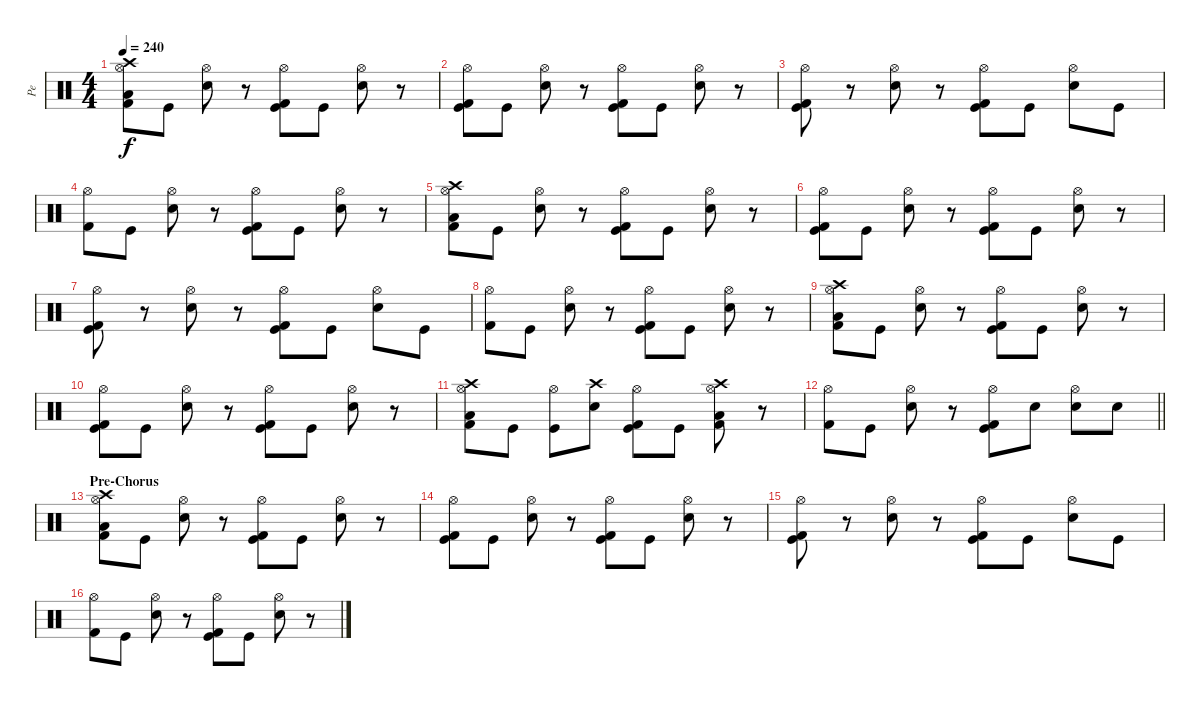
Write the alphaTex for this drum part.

\track ("Pe" "Pe") {instrument percussion}
\staff {score}
\articulation defaults
\ts (4 4)
\tempo 240
\clef neutral
\ks c
("Low Tom (hit)" "Hi-Hat (open)" "Kick (hit) 2" "Crash high (hit)").8{dy f} "Kick (hit)".8 ("Electric Snare (hit)" "Hi-Hat (open)").8 r.8 ("Kick (hit)" "Hi-Hat (open)" "Kick (hit) 2").8 "Kick (hit)".8 ("Electric Snare (hit)" "Hi-Hat (open)").8 r.8 |
("Kick (hit)" "Hi-Hat (open)" "Kick (hit) 2").8 "Kick (hit)".8 ("Electric Snare (hit)" "Hi-Hat (open)").8 r.8 ("Kick (hit)" "Hi-Hat (open)" "Kick (hit) 2").8 "Kick (hit)".8 ("Electric Snare (hit)" "Hi-Hat (open)").8 r.8 |
("Kick (hit)" "Hi-Hat (open)" "Kick (hit) 2").8 r.8 ("Electric Snare (hit)" "Hi-Hat (open)").8 r.8 ("Kick (hit)" "Hi-Hat (open)" "Kick (hit) 2").8 "Kick (hit)".8 ("Electric Snare (hit)" "Hi-Hat (open)").8 "Kick (hit)".8 |
("Hi-Hat (open)" "Kick (hit) 2").8 "Kick (hit)".8 ("Electric Snare (hit)" "Hi-Hat (open)").8 r.8 ("Kick (hit)" "Hi-Hat (open)" "Kick (hit) 2").8 "Kick (hit)".8 ("Electric Snare (hit)" "Hi-Hat (open)").8 r.8 |
("Low Tom (hit)" "Hi-Hat (open)" "Kick (hit) 2" "Crash high (hit)").8 "Kick (hit)".8 ("Electric Snare (hit)" "Hi-Hat (open)").8 r.8 ("Kick (hit)" "Hi-Hat (open)" "Kick (hit) 2").8 "Kick (hit)".8 ("Electric Snare (hit)" "Hi-Hat (open)").8 r.8 |
("Kick (hit)" "Hi-Hat (open)" "Kick (hit) 2").8 "Kick (hit)".8 ("Electric Snare (hit)" "Hi-Hat (open)").8 r.8 ("Kick (hit)" "Hi-Hat (open)" "Kick (hit) 2").8 "Kick (hit)".8 ("Electric Snare (hit)" "Hi-Hat (open)").8 r.8 |
("Kick (hit)" "Hi-Hat (open)" "Kick (hit) 2").8 r.8 ("Electric Snare (hit)" "Hi-Hat (open)").8 r.8 ("Kick (hit)" "Hi-Hat (open)" "Kick (hit) 2").8 "Kick (hit)".8 ("Electric Snare (hit)" "Hi-Hat (open)").8 "Kick (hit)".8 |
("Hi-Hat (open)" "Kick (hit) 2").8 "Kick (hit)".8 ("Electric Snare (hit)" "Hi-Hat (open)").8 r.8 ("Kick (hit)" "Hi-Hat (open)" "Kick (hit) 2").8 "Kick (hit)".8 ("Electric Snare (hit)" "Hi-Hat (open)").8 r.8 |
("Low Tom (hit)" "Hi-Hat (open)" "Kick (hit) 2" "Crash high (hit)").8 "Kick (hit)".8 ("Electric Snare (hit)" "Hi-Hat (open)").8 r.8 ("Kick (hit)" "Hi-Hat (open)" "Kick (hit) 2").8 "Kick (hit)".8 ("Electric Snare (hit)" "Hi-Hat (open)").8 r.8 |
("Kick (hit)" "Hi-Hat (open)" "Kick (hit) 2").8 "Kick (hit)".8 ("Electric Snare (hit)" "Hi-Hat (open)").8 r.8 ("Kick (hit)" "Hi-Hat (open)" "Kick (hit) 2").8 "Kick (hit)".8 ("Electric Snare (hit)" "Hi-Hat (open)").8 r.8 |
("Low Tom (hit)" "Hi-Hat (open)" "Kick (hit) 2" "Crash high (hit)").8 "Kick (hit)".8 ("Kick (hit)" "Hi-Hat (open)").8 ("Crash high (hit)" "Electric Snare (hit)").8 ("Kick (hit)" "Hi-Hat (open)" "Kick (hit) 2").8 "Kick (hit)".8 ("Low Tom (hit)" "Hi-Hat (open)" "Kick (hit) 2" "Crash high (hit)").8 r.8 |
\barLineRight lightlight
("Hi-Hat (open)" "Kick (hit) 2").8 "Kick (hit)".8 ("Electric Snare (hit)" "Hi-Hat (open)").8 r.8 ("Kick (hit)" "Hi-Hat (open)" "Kick (hit) 2").8 "Electric Snare (hit)".8 ("Electric Snare (hit)" "Hi-Hat (open)").8 "Electric Snare (hit)".8 |
\section ("" "Pre-Chorus")
("Low Tom (hit)" "Hi-Hat (open)" "Kick (hit) 2" "Crash high (hit)").8 "Kick (hit)".8 ("Electric Snare (hit)" "Hi-Hat (open)").8 r.8 ("Kick (hit)" "Hi-Hat (open)" "Kick (hit) 2").8 "Kick (hit)".8 ("Electric Snare (hit)" "Hi-Hat (open)").8 r.8 |
("Kick (hit)" "Hi-Hat (open)" "Kick (hit) 2").8 "Kick (hit)".8 ("Electric Snare (hit)" "Hi-Hat (open)").8 r.8 ("Kick (hit)" "Hi-Hat (open)" "Kick (hit) 2").8 "Kick (hit)".8 ("Electric Snare (hit)" "Hi-Hat (open)").8 r.8 |
("Kick (hit)" "Hi-Hat (open)" "Kick (hit) 2").8 r.8 ("Electric Snare (hit)" "Hi-Hat (open)").8 r.8 ("Kick (hit)" "Hi-Hat (open)" "Kick (hit) 2").8 "Kick (hit)".8 ("Electric Snare (hit)" "Hi-Hat (open)").8 "Kick (hit)".8 |
("Hi-Hat (open)" "Kick (hit) 2").8 "Kick (hit)".8 ("Electric Snare (hit)" "Hi-Hat (open)").8 r.8 ("Kick (hit)" "Hi-Hat (open)" "Kick (hit) 2").8 "Kick (hit)".8 ("Electric Snare (hit)" "Hi-Hat (open)").8 r.8
